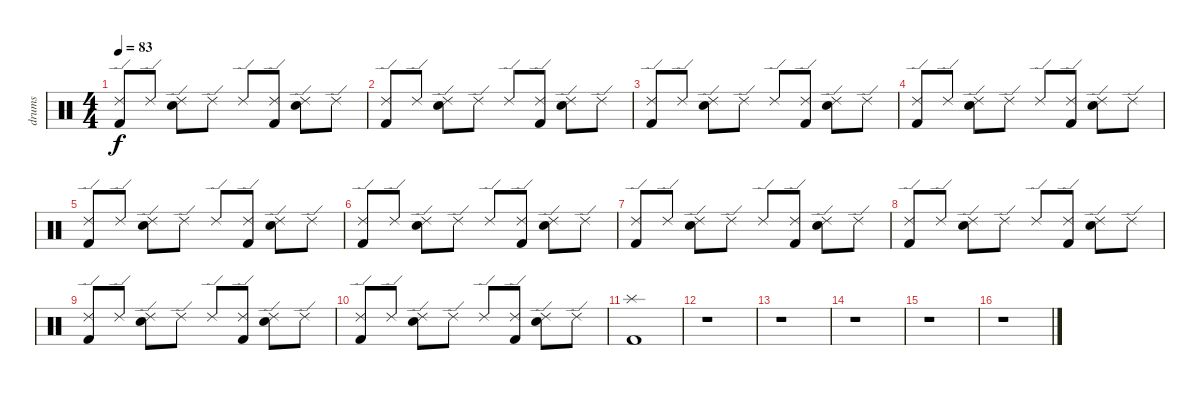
\track ("drums" "drums") {instrument percussion}
\staff {score}
\articulation defaults
\ts (4 4)
\tempo 83
\clef neutral
\ks c
("Ride (edge) 2" "Kick (hit) 2").8{dy f} "Ride (edge) 2".8 ("Ride (edge) 2" "Snare (hit) 2").8 "Ride (edge) 2".8 "Ride (edge) 2".8 ("Ride (edge) 2" "Kick (hit) 2").8 ("Ride (edge) 2" "Snare (hit) 2").8 "Ride (edge) 2".8 |
("Ride (edge) 2" "Kick (hit) 2").8 "Ride (edge) 2".8 ("Ride (edge) 2" "Snare (hit) 2").8 "Ride (edge) 2".8 "Ride (edge) 2".8 ("Ride (edge) 2" "Kick (hit) 2").8 ("Ride (edge) 2" "Snare (hit) 2").8 "Ride (edge) 2".8 |
("Ride (edge) 2" "Kick (hit) 2").8 "Ride (edge) 2".8 ("Ride (edge) 2" "Snare (hit) 2").8 "Ride (edge) 2".8 "Ride (edge) 2".8 ("Ride (edge) 2" "Kick (hit) 2").8 ("Ride (edge) 2" "Snare (hit) 2").8 "Ride (edge) 2".8 |
("Ride (edge) 2" "Kick (hit) 2").8 "Ride (edge) 2".8 ("Ride (edge) 2" "Snare (hit) 2").8 "Ride (edge) 2".8 "Ride (edge) 2".8 ("Ride (edge) 2" "Kick (hit) 2").8 ("Ride (edge) 2" "Snare (hit) 2").8 "Ride (edge) 2".8 |
("Ride (edge) 2" "Kick (hit) 2").8 "Ride (edge) 2".8 ("Ride (edge) 2" "Snare (hit) 2").8 "Ride (edge) 2".8 "Ride (edge) 2".8 ("Ride (edge) 2" "Kick (hit) 2").8 ("Ride (edge) 2" "Snare (hit) 2").8 "Ride (edge) 2".8 |
("Ride (edge) 2" "Kick (hit) 2").8 "Ride (edge) 2".8 ("Ride (edge) 2" "Snare (hit) 2").8 "Ride (edge) 2".8 "Ride (edge) 2".8 ("Ride (edge) 2" "Kick (hit) 2").8 ("Ride (edge) 2" "Snare (hit) 2").8 "Ride (edge) 2".8 |
("Ride (edge) 2" "Kick (hit) 2").8 "Ride (edge) 2".8 ("Ride (edge) 2" "Snare (hit) 2").8 "Ride (edge) 2".8 "Ride (edge) 2".8 ("Ride (edge) 2" "Kick (hit) 2").8 ("Ride (edge) 2" "Snare (hit) 2").8 "Ride (edge) 2".8 |
("Ride (edge) 2" "Kick (hit) 2").8 "Ride (edge) 2".8 ("Ride (edge) 2" "Snare (hit) 2").8 "Ride (edge) 2".8 "Ride (edge) 2".8 ("Ride (edge) 2" "Kick (hit) 2").8 ("Ride (edge) 2" "Snare (hit) 2").8 "Ride (edge) 2".8 |
("Ride (edge) 2" "Kick (hit) 2").8 "Ride (edge) 2".8 ("Ride (edge) 2" "Snare (hit) 2").8 "Ride (edge) 2".8 "Ride (edge) 2".8 ("Ride (edge) 2" "Kick (hit) 2").8 ("Ride (edge) 2" "Snare (hit) 2").8 "Ride (edge) 2".8 |
("Ride (edge) 2" "Kick (hit) 2").8 "Ride (edge) 2".8 ("Ride (edge) 2" "Snare (hit) 2").8 "Ride (edge) 2".8 "Ride (edge) 2".8 ("Ride (edge) 2" "Kick (hit) 2").8 ("Ride (edge) 2" "Snare (hit) 2").8 "Ride (edge) 2".8 |
("Splash (hit)" "Kick (hit) 2").1 |
r.1 |
r.1 |
r.1 |
r.1 |
r.1
